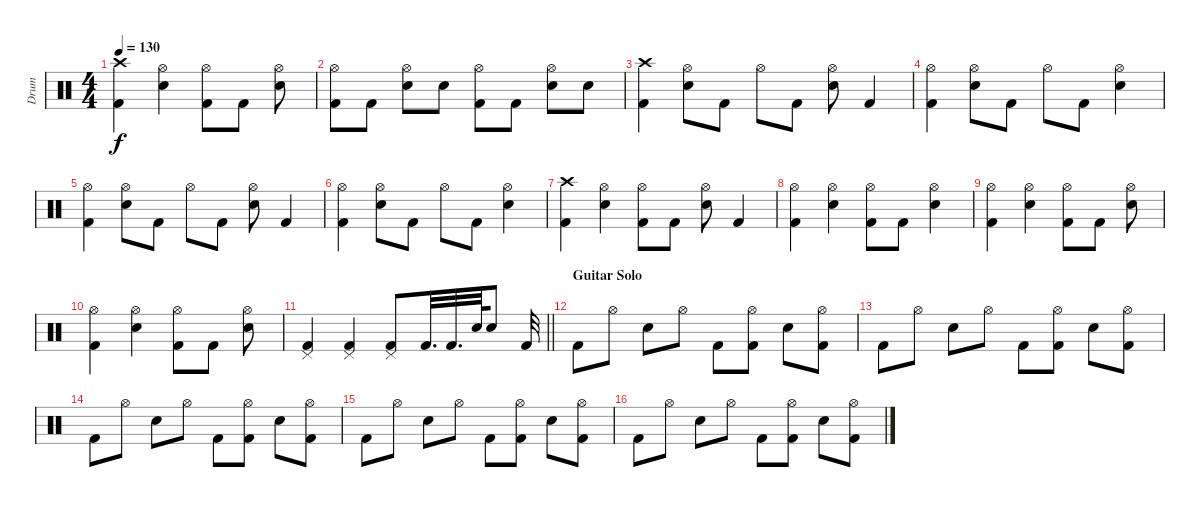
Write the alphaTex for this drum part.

\track ("Drum" "Drum") {instrument percussion}
\staff {score}
\articulation defaults
\ts (4 4)
\tempo 130
\clef neutral
\ks c
("Crash high (hit)" "Kick (hit) 2").4{dy f} ("Hi-Hat (open)" "Electric Snare (hit)").4 ("Hi-Hat (open)" "Kick (hit) 2").8 "Kick (hit) 2".8 ("Hi-Hat (open)" "Electric Snare (hit)").8 |
("Hi-Hat (open)" "Kick (hit) 2").8 "Kick (hit) 2".8 ("Hi-Hat (open)" "Electric Snare (hit)").8 "Electric Snare (hit)".8 ("Hi-Hat (open)" "Kick (hit) 2").8 "Kick (hit) 2".8 ("Hi-Hat (open)" "Electric Snare (hit)").8 "Electric Snare (hit)".8 |
("Crash high (hit)" "Kick (hit) 2").4 ("Hi-Hat (open)" "Electric Snare (hit)").8 "Kick (hit) 2".8 "Hi-Hat (open)".8 "Kick (hit) 2".8 ("Hi-Hat (open)" "Electric Snare (hit)").8 "Kick (hit) 2".4 |
("Hi-Hat (open)" "Kick (hit) 2").4 ("Hi-Hat (open)" "Electric Snare (hit)").8 "Kick (hit) 2".8 "Hi-Hat (open)".8 "Kick (hit) 2".8 ("Hi-Hat (open)" "Electric Snare (hit)").4 |
("Hi-Hat (open)" "Kick (hit) 2").4 ("Hi-Hat (open)" "Electric Snare (hit)").8 "Kick (hit) 2".8 "Hi-Hat (open)".8 "Kick (hit) 2".8 ("Hi-Hat (open)" "Electric Snare (hit)").8 "Kick (hit) 2".4 |
("Hi-Hat (open)" "Kick (hit) 2").4 ("Hi-Hat (open)" "Electric Snare (hit)").8 "Kick (hit) 2".8 "Hi-Hat (open)".8 "Kick (hit) 2".8 ("Hi-Hat (open)" "Electric Snare (hit)").4 |
("Crash high (hit)" "Kick (hit) 2").4 ("Hi-Hat (open)" "Electric Snare (hit)").4 ("Hi-Hat (open)" "Kick (hit) 2").8 "Kick (hit) 2".8 ("Hi-Hat (open)" "Electric Snare (hit)").8 "Kick (hit) 2".4 |
("Hi-Hat (open)" "Kick (hit) 2").4 ("Hi-Hat (open)" "Electric Snare (hit)").4 ("Hi-Hat (open)" "Kick (hit) 2").8 "Kick (hit) 2".8 ("Hi-Hat (open)" "Electric Snare (hit)").4 |
("Hi-Hat (open)" "Kick (hit) 2").4 ("Hi-Hat (open)" "Electric Snare (hit)").4 ("Hi-Hat (open)" "Kick (hit) 2").8 "Kick (hit) 2".8 ("Hi-Hat (open)" "Electric Snare (hit)").8 |
("Hi-Hat (open)" "Kick (hit) 2").4 ("Hi-Hat (open)" "Electric Snare (hit)").4 ("Hi-Hat (open)" "Kick (hit) 2").8 "Kick (hit) 2".8 ("Hi-Hat (open)" "Electric Snare (hit)").8 |
\barLineRight lightlight
("Pedal Hi-Hat (hit)" "Kick (hit) 2").4 ("Pedal Hi-Hat (hit)" "Kick (hit) 2").4 ("Pedal Hi-Hat (hit)" "Kick (hit) 2").8 "Kick (hit) 2".32{d} "Kick (hit) 2".32{d} "Electric Snare (hit)".64 "Electric Snare (hit)".8 "Kick (hit) 2".32 |
\section ("" "Guitar Solo")
"Kick (hit) 2".8 "Hi-Hat (open)".8 "Electric Snare (hit)".8 "Hi-Hat (open)".8 "Kick (hit) 2".8 ("Hi-Hat (open)" "Kick (hit) 2").8 "Electric Snare (hit)".8 ("Hi-Hat (open)" "Kick (hit) 2").8 |
"Kick (hit) 2".8 "Hi-Hat (open)".8 "Electric Snare (hit)".8 "Hi-Hat (open)".8 "Kick (hit) 2".8 ("Hi-Hat (open)" "Kick (hit) 2").8 "Electric Snare (hit)".8 ("Hi-Hat (open)" "Kick (hit) 2").8 |
"Kick (hit) 2".8 "Hi-Hat (open)".8 "Electric Snare (hit)".8 "Hi-Hat (open)".8 "Kick (hit) 2".8 ("Hi-Hat (open)" "Kick (hit) 2").8 "Electric Snare (hit)".8 ("Hi-Hat (open)" "Kick (hit) 2").8 |
"Kick (hit) 2".8 "Hi-Hat (open)".8 "Electric Snare (hit)".8 "Hi-Hat (open)".8 "Kick (hit) 2".8 ("Hi-Hat (open)" "Kick (hit) 2").8 "Electric Snare (hit)".8 ("Hi-Hat (open)" "Kick (hit) 2").8 |
"Kick (hit) 2".8 "Hi-Hat (open)".8 "Electric Snare (hit)".8 "Hi-Hat (open)".8 "Kick (hit) 2".8 ("Hi-Hat (open)" "Kick (hit) 2").8 "Electric Snare (hit)".8 ("Hi-Hat (open)" "Kick (hit) 2").8
